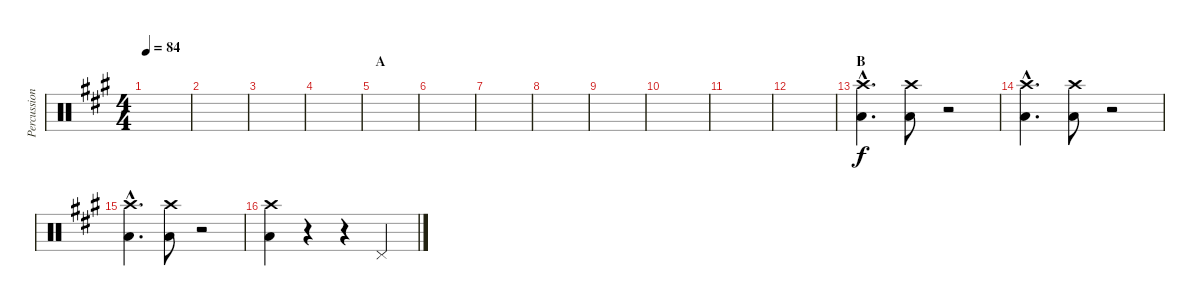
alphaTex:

\track ("Percussion - Chad S" "Percussion") {instrument percussion}
\staff {score}
\articulation defaults
\ts (4 4)
\tempo 84
\clef neutral
\ks a
|
|
|
|
\section ("" "A")
|
|
|
|
|
|
|
|
\section ("" "B")
("Crash high (hit)"{hac} "Low Floor Tom (hit)"{hac}).4{d} ("Crash high (hit)" "Low Floor Tom (hit)").8 r.2 |
("Crash high (hit)"{hac} "Low Floor Tom (hit)"{hac}).4{d} ("Crash high (hit)" "Low Floor Tom (hit)").8 r.2 |
("Crash high (hit)"{hac} "Low Floor Tom (hit)"{hac}).4{d} ("Crash high (hit)" "Low Floor Tom (hit)").8 r.2 |
("Crash high (hit)" "Low Floor Tom (hit)").4 r.4 r.4 "Pedal Hi-Hat (hit)".4
